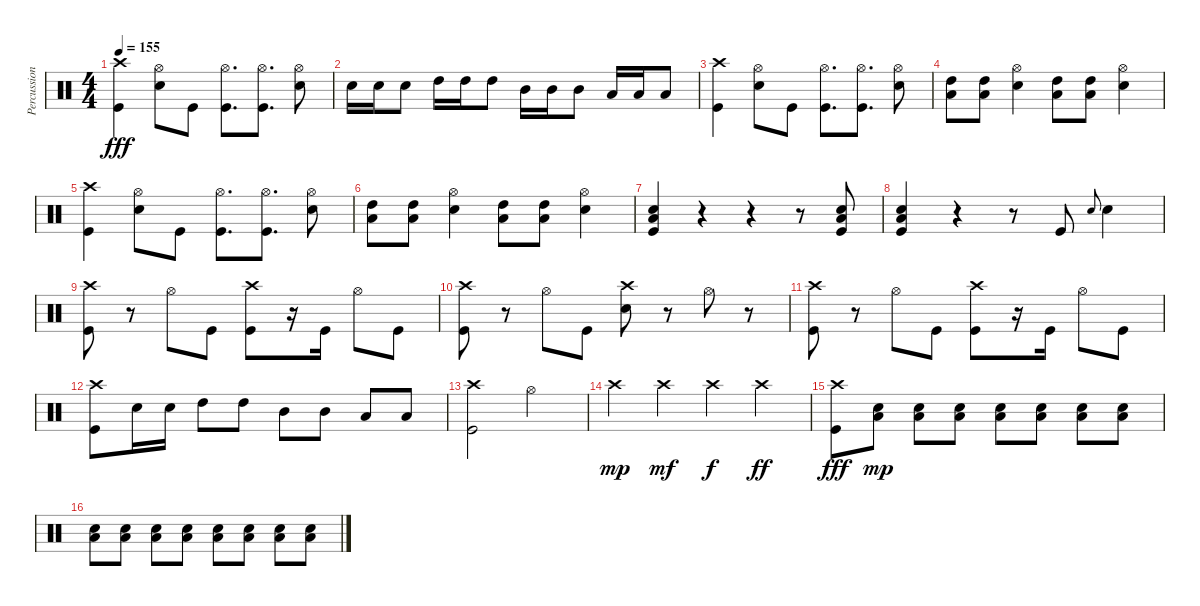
\track ("Percussion" "Percussion") {instrument percussion}
\staff {score}
\articulation defaults
\ts (4 4)
\tempo 155
\clef neutral
\ks c
("Crash high (hit)" "Kick (hit)").4{dy fff} ("Hi-Hat (open)" "Snare (hit) 2").8 "Kick (hit)".8 ("Hi-Hat (open)" "Kick (hit)").8{d} ("Hi-Hat (open)" "Kick (hit)").8{d} ("Hi-Hat (open)" "Snare (hit) 2").8 |
"Snare (hit) 2".16 "Snare (hit) 2".16 "Snare (hit) 2".8 "High Tom (hit)".16 "High Tom (hit)".16 "High Tom (hit)".8 "Mid Tom (hit)".16 "Mid Tom (hit)".16 "Mid Tom (hit)".8 "Low Tom (hit)".16 "Low Tom (hit)".16 "Low Tom (hit)".8 |
("Crash high (hit)" "Kick (hit)").4 ("Hi-Hat (open)" "Snare (hit) 2").8 "Kick (hit)".8 ("Hi-Hat (open)" "Kick (hit)").8{d} ("Hi-Hat (open)" "Kick (hit)").8{d} ("Hi-Hat (open)" "Snare (hit) 2").8 |
("High Tom (hit)" "Low Tom (hit)").8 ("High Tom (hit)" "Low Tom (hit)").8 ("Hi-Hat (open)" "Snare (hit) 2").4 ("High Tom (hit)" "Low Tom (hit)").8 ("High Tom (hit)" "Low Tom (hit)").8 ("Hi-Hat (open)" "Snare (hit) 2").4 |
("Crash high (hit)" "Kick (hit)").4 ("Hi-Hat (open)" "Snare (hit) 2").8 "Kick (hit)".8 ("Hi-Hat (open)" "Kick (hit)").8{d} ("Hi-Hat (open)" "Kick (hit)").8{d} ("Hi-Hat (open)" "Snare (hit) 2").8 |
("High Tom (hit)" "Low Tom (hit)").8 ("High Tom (hit)" "Low Tom (hit)").8 ("Hi-Hat (open)" "Snare (hit) 2").4 ("High Tom (hit)" "Low Tom (hit)").8 ("High Tom (hit)" "Low Tom (hit)").8 ("Hi-Hat (open)" "Snare (hit) 2").4 |
("Low Tom (hit)" "Snare (hit) 2" "Kick (hit)").4 r.4 r.4 r.8 ("Low Tom (hit)" "Snare (hit) 2" "Kick (hit)").8 |
("Low Tom (hit)" "Snare (hit) 2" "Kick (hit)").4 r.4 r.8 "Kick (hit)".8 "Snare (hit) 2".8{gr onbeat} "Snare (hit) 2".4 |
("Crash high (hit)" "Kick (hit)").8 r.8 "Hi-Hat (open)".8 "Kick (hit)".8 ("Crash high (hit)" "Kick (hit)").8 r.16 "Kick (hit)".16 "Hi-Hat (open)".8 "Kick (hit)".8 |
("Crash high (hit)" "Kick (hit)").8 r.8 "Hi-Hat (open)".8 "Kick (hit)".8 ("Crash high (hit)" "Snare (hit) 2").8 r.8 "Hi-Hat (open)".8 r.8 |
("Crash high (hit)" "Kick (hit)").8 r.8 "Hi-Hat (open)".8 "Kick (hit)".8 ("Crash high (hit)" "Kick (hit)").8 r.16 "Kick (hit)".16 "Hi-Hat (open)".8 "Kick (hit)".8 |
("Crash high (hit)" "Kick (hit)").8 "Snare (hit) 2".16 "Snare (hit) 2".16 "High Tom (hit)".8 "High Tom (hit)".8 "Mid Tom (hit)".8 "Mid Tom (hit)".8 "Low Tom (hit)".8 "Low Tom (hit)".8 |
("Crash high (hit)" "Kick (hit)").2 "Hi-Hat (open)".2 |
"Crash high (hit)".4{dy mp} "Crash high (hit)".4{dy mf} "Crash high (hit)".4{dy f} "Crash high (hit)".4{dy ff} |
("Crash high (hit)" "Kick (hit)").8{dy fff} ("Low Tom (hit)" "Snare (hit) 2").8{dy mp} ("Low Tom (hit)" "Snare (hit) 2").8 ("Low Tom (hit)" "Snare (hit) 2").8 ("Low Tom (hit)" "Snare (hit) 2").8 ("Low Tom (hit)" "Snare (hit) 2").8 ("Low Tom (hit)" "Snare (hit) 2").8 ("Low Tom (hit)" "Snare (hit) 2").8 |
("Low Tom (hit)" "Snare (hit) 2").8 ("Low Tom (hit)" "Snare (hit) 2").8 ("Low Tom (hit)" "Snare (hit) 2").8 ("Low Tom (hit)" "Snare (hit) 2").8 ("Low Tom (hit)" "Snare (hit) 2").8 ("Low Tom (hit)" "Snare (hit) 2").8 ("Low Tom (hit)" "Snare (hit) 2").8 ("Low Tom (hit)" "Snare (hit) 2").8
